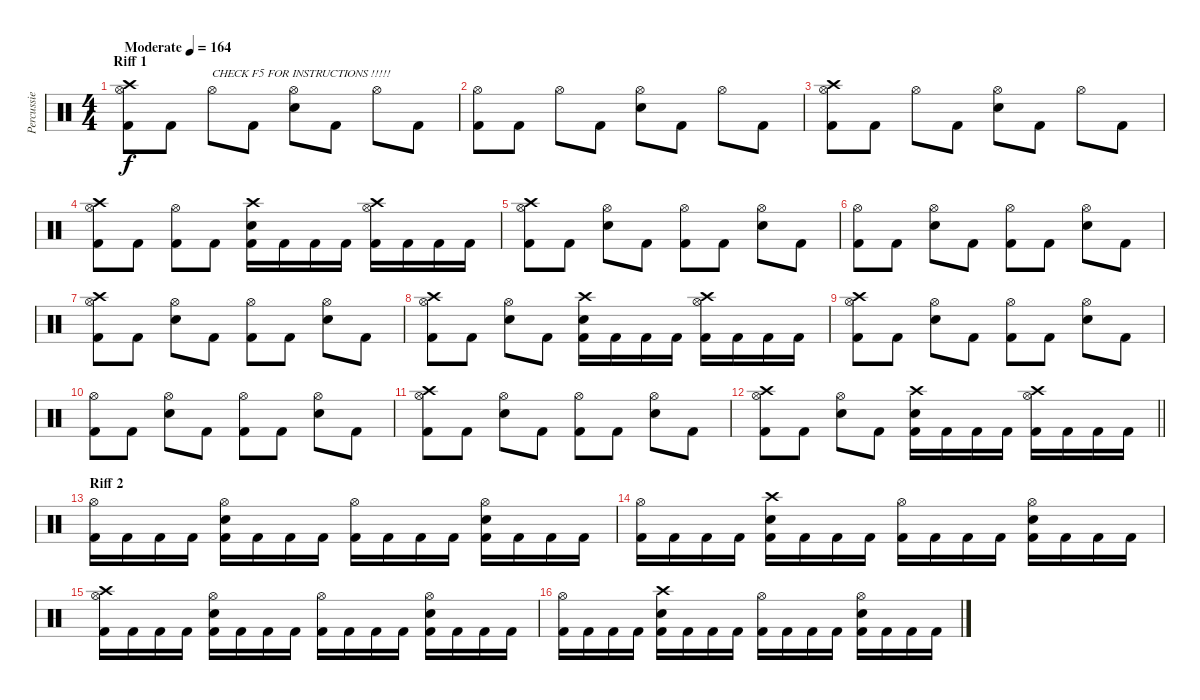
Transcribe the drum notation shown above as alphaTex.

\track ("Percussie" "Percussie") {instrument percussion}
\staff {score}
\articulation defaults
\ts (4 4)
\section ("" "Riff 1")
\tempo (164 "Moderate")
\clef neutral
\ks c
("Hi-Hat (open)" "Crash high (hit)" "Kick (hit) 2").8{dy f} "Kick (hit) 2".8 "Hi-Hat (open)".8{txt "CHECK F5 FOR INSTRUCTIONS !!!!!"} "Kick (hit) 2".8 ("Hi-Hat (open)" "Electric Snare (hit)").8 "Kick (hit) 2".8 "Hi-Hat (open)".8 "Kick (hit) 2".8 |
("Hi-Hat (open)" "Kick (hit) 2").8 "Kick (hit) 2".8 "Hi-Hat (open)".8 "Kick (hit) 2".8 ("Hi-Hat (open)" "Electric Snare (hit)").8 "Kick (hit) 2".8 "Hi-Hat (open)".8 "Kick (hit) 2".8 |
("Hi-Hat (open)" "Crash high (hit)" "Kick (hit) 2").8 "Kick (hit) 2".8 "Hi-Hat (open)".8 "Kick (hit) 2".8 ("Hi-Hat (open)" "Electric Snare (hit)").8 "Kick (hit) 2".8 "Hi-Hat (open)".8 "Kick (hit) 2".8 |
("Hi-Hat (open)" "Crash high (hit)" "Kick (hit) 2").8 "Kick (hit) 2".8 ("Hi-Hat (open)" "Kick (hit) 2").8 "Kick (hit) 2".8 ("Crash high (hit)" "Electric Snare (hit)" "Kick (hit) 2").16 "Kick (hit) 2".16 "Kick (hit) 2".16 "Kick (hit) 2".16 ("Hi-Hat (open)" "Crash high (hit)" "Kick (hit) 2").16 "Kick (hit) 2".16 "Kick (hit) 2".16 "Kick (hit) 2".16 |
("Hi-Hat (open)" "Crash high (hit)" "Kick (hit) 2").8 "Kick (hit) 2".8 ("Hi-Hat (open)" "Electric Snare (hit)").8 "Kick (hit) 2".8 ("Hi-Hat (open)" "Kick (hit) 2").8 "Kick (hit) 2".8 ("Hi-Hat (open)" "Electric Snare (hit)").8 "Kick (hit) 2".8 |
("Hi-Hat (open)" "Kick (hit) 2").8 "Kick (hit) 2".8 ("Hi-Hat (open)" "Electric Snare (hit)").8 "Kick (hit) 2".8 ("Hi-Hat (open)" "Kick (hit) 2").8 "Kick (hit) 2".8 ("Hi-Hat (open)" "Electric Snare (hit)").8 "Kick (hit) 2".8 |
("Hi-Hat (open)" "Crash high (hit)" "Kick (hit) 2").8 "Kick (hit) 2".8 ("Hi-Hat (open)" "Electric Snare (hit)").8 "Kick (hit) 2".8 ("Hi-Hat (open)" "Kick (hit) 2").8 "Kick (hit) 2".8 ("Hi-Hat (open)" "Electric Snare (hit)").8 "Kick (hit) 2".8 |
("Hi-Hat (open)" "Crash high (hit)" "Kick (hit) 2").8 "Kick (hit) 2".8 ("Hi-Hat (open)" "Electric Snare (hit)").8 "Kick (hit) 2".8 ("Crash high (hit)" "Electric Snare (hit)" "Kick (hit) 2").16 "Kick (hit) 2".16 "Kick (hit) 2".16 "Kick (hit) 2".16 ("Hi-Hat (open)" "Crash high (hit)" "Kick (hit) 2").16 "Kick (hit) 2".16 "Kick (hit) 2".16 "Kick (hit) 2".16 |
("Hi-Hat (open)" "Crash high (hit)" "Kick (hit) 2").8 "Kick (hit) 2".8 ("Hi-Hat (open)" "Electric Snare (hit)").8 "Kick (hit) 2".8 ("Hi-Hat (open)" "Kick (hit) 2").8 "Kick (hit) 2".8 ("Hi-Hat (open)" "Electric Snare (hit)").8 "Kick (hit) 2".8 |
("Hi-Hat (open)" "Kick (hit) 2").8 "Kick (hit) 2".8 ("Hi-Hat (open)" "Electric Snare (hit)").8 "Kick (hit) 2".8 ("Hi-Hat (open)" "Kick (hit) 2").8 "Kick (hit) 2".8 ("Hi-Hat (open)" "Electric Snare (hit)").8 "Kick (hit) 2".8 |
("Hi-Hat (open)" "Crash high (hit)" "Kick (hit) 2").8 "Kick (hit) 2".8 ("Hi-Hat (open)" "Electric Snare (hit)").8 "Kick (hit) 2".8 ("Hi-Hat (open)" "Kick (hit) 2").8 "Kick (hit) 2".8 ("Hi-Hat (open)" "Electric Snare (hit)").8 "Kick (hit) 2".8 |
\barLineRight lightlight
("Hi-Hat (open)" "Crash high (hit)" "Kick (hit) 2").8 "Kick (hit) 2".8 ("Hi-Hat (open)" "Electric Snare (hit)").8 "Kick (hit) 2".8 ("Crash high (hit)" "Electric Snare (hit)" "Kick (hit) 2").16 "Kick (hit) 2".16 "Kick (hit) 2".16 "Kick (hit) 2".16 ("Hi-Hat (open)" "Crash high (hit)" "Kick (hit) 2").16 "Kick (hit) 2".16 "Kick (hit) 2".16 "Kick (hit) 2".16 |
\section ("" "Riff 2")
("Hi-Hat (open)" "Kick (hit) 2").16 "Kick (hit) 2".16 "Kick (hit) 2".16 "Kick (hit) 2".16 ("Hi-Hat (open)" "Electric Snare (hit)" "Kick (hit) 2").16 "Kick (hit) 2".16 "Kick (hit) 2".16 "Kick (hit) 2".16 ("Hi-Hat (open)" "Kick (hit) 2").16 "Kick (hit) 2".16 "Kick (hit) 2".16 "Kick (hit) 2".16 ("Hi-Hat (open)" "Electric Snare (hit)" "Kick (hit) 2").16 "Kick (hit) 2".16 "Kick (hit) 2".16 "Kick (hit) 2".16 |
("Hi-Hat (open)" "Kick (hit) 2").16 "Kick (hit) 2".16 "Kick (hit) 2".16 "Kick (hit) 2".16 ("Crash high (hit)" "Electric Snare (hit)" "Kick (hit) 2").16 "Kick (hit) 2".16 "Kick (hit) 2".16 "Kick (hit) 2".16 ("Hi-Hat (open)" "Kick (hit) 2").16 "Kick (hit) 2".16 "Kick (hit) 2".16 "Kick (hit) 2".16 ("Hi-Hat (open)" "Electric Snare (hit)" "Kick (hit) 2").16 "Kick (hit) 2".16 "Kick (hit) 2".16 "Kick (hit) 2".16 |
("Hi-Hat (open)" "Crash high (hit)" "Kick (hit) 2").16 "Kick (hit) 2".16 "Kick (hit) 2".16 "Kick (hit) 2".16 ("Hi-Hat (open)" "Electric Snare (hit)" "Kick (hit) 2").16 "Kick (hit) 2".16 "Kick (hit) 2".16 "Kick (hit) 2".16 ("Hi-Hat (open)" "Kick (hit) 2").16 "Kick (hit) 2".16 "Kick (hit) 2".16 "Kick (hit) 2".16 ("Hi-Hat (open)" "Electric Snare (hit)" "Kick (hit) 2").16 "Kick (hit) 2".16 "Kick (hit) 2".16 "Kick (hit) 2".16 |
("Hi-Hat (open)" "Kick (hit) 2").16 "Kick (hit) 2".16 "Kick (hit) 2".16 "Kick (hit) 2".16 ("Crash high (hit)" "Electric Snare (hit)" "Kick (hit) 2").16 "Kick (hit) 2".16 "Kick (hit) 2".16 "Kick (hit) 2".16 ("Hi-Hat (open)" "Kick (hit) 2").16 "Kick (hit) 2".16 "Kick (hit) 2".16 "Kick (hit) 2".16 ("Hi-Hat (open)" "Electric Snare (hit)" "Kick (hit) 2").16 "Kick (hit) 2".16 "Kick (hit) 2".16 "Kick (hit) 2".16
